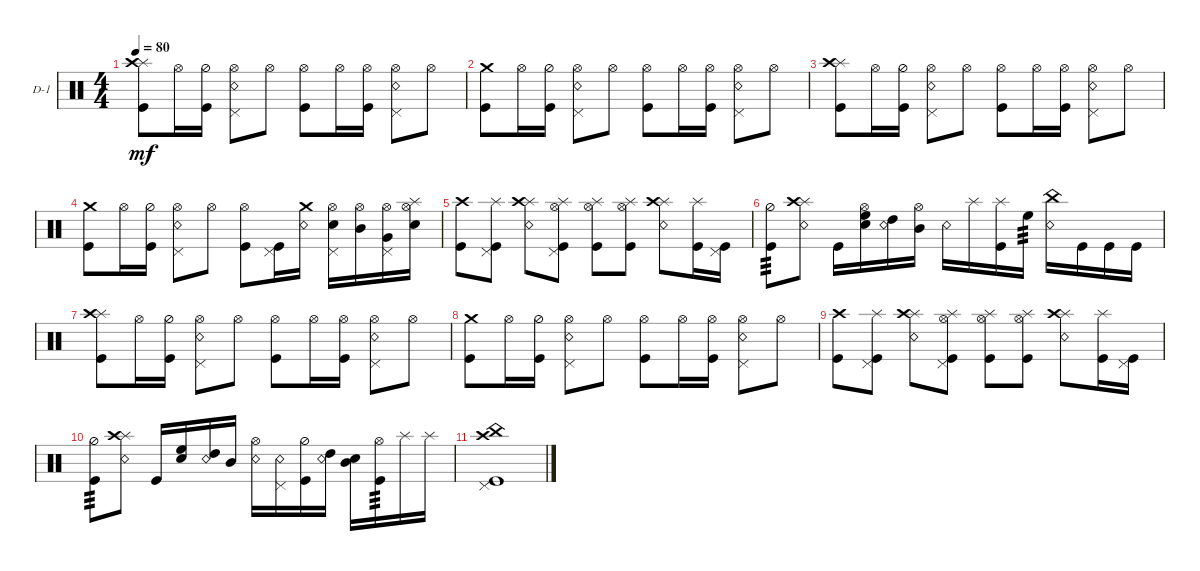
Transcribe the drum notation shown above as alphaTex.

\defaultSystemsLayout 4
\bracketExtendMode groupsimilarinstruments
\firstSystemTrackNameOrientation horizontal
\otherSystemsTrackNameOrientation horizontal
\track ("Drums" "D-1") {multiBarRest instrument percussion}
\staff {score}
\articulation defaults
\ts (4 4)
\tempo 80
\clef neutral
\ks aminor
("Kick (hit)" "Splash (hit)" "Crash high (hit)").8{dy mf} "Hi-Hat (open)".16 ("Hi-Hat (half)" "Kick (hit)").16 ("Hi-Hat (open)" "Pedal Hi-Hat (hit)" "Snare (rim shot)").8 "Hi-Hat (open)".8 ("Kick (hit)" "Hi-Hat (open)").8 "Hi-Hat (open)".16 ("Hi-Hat (open)" "Kick (hit)").16 ("Hi-Hat (open)" "Pedal Hi-Hat (hit)" "Snare (rim shot)").8 "Hi-Hat (open)".8 |
("Kick (hit)" "Crash medium (hit)").8 "Hi-Hat (open)".16 ("Hi-Hat (half)" "Kick (hit)").16 ("Hi-Hat (open)" "Pedal Hi-Hat (hit)" "Snare (rim shot)").8 "Hi-Hat (open)".8 ("Kick (hit)" "Hi-Hat (open)").8 "Hi-Hat (open)".16 ("Hi-Hat (open)" "Kick (hit)").16 ("Hi-Hat (open)" "Pedal Hi-Hat (hit)" "Snare (rim shot)").8 "Hi-Hat (open)".8 |
("Kick (hit)" "Splash (hit)" "Crash high (hit)").8 "Hi-Hat (open)".16 ("Hi-Hat (half)" "Kick (hit)").16 ("Hi-Hat (open)" "Pedal Hi-Hat (hit)" "Snare (rim shot)").8 "Hi-Hat (open)".8 ("Kick (hit)" "Hi-Hat (open)").8 "Hi-Hat (open)".16 ("Hi-Hat (open)" "Kick (hit)").16 ("Hi-Hat (open)" "Pedal Hi-Hat (hit)" "Snare (rim shot)").8 "Hi-Hat (open)".8 |
("Kick (hit)" "Crash medium (hit)").8 "Hi-Hat (open)".16 ("Hi-Hat (half)" "Kick (hit)").16 ("Hi-Hat (open)" "Pedal Hi-Hat (hit)" "Snare (rim shot)").8 "Hi-Hat (open)".8 ("Kick (hit)" "Hi-Hat (open)").8 ("Kick (hit)" "Pedal Hi-Hat (hit)").16 ("Snare (rim shot)" "Crash medium (hit)").16 ("Snare (hit) 2" "Pedal Hi-Hat (hit)" "Hi-Hat (open)").16 ("Mid Tom (hit)" "Hi-Hat (open)").16 ("Very Low Tom (hit)" "Pedal Hi-Hat (hit)" "Hi-Hat (open)").16 ("Snare (hit) 2" "Hi-Hat (open)" "Splash (hit)").16 |
("Crash high (hit)" "Kick (hit)").8 ("Kick (hit)" "Splash (hit)" "Pedal Hi-Hat (hit)").8 ("Splash (hit)" "Snare (rim shot)" "Crash high (hit)").8 ("Splash (hit)" "Pedal Hi-Hat (hit)" "Kick (hit)" "Hi-Hat (open)").8 ("Splash (hit)" "Kick (hit)" "Hi-Hat (open)").8 ("Splash (hit)" "Kick (hit)" "Hi-Hat (open)").8 ("Splash (hit)" "Snare (rim shot)" "Crash high (hit)").8 ("Splash (hit)" "Kick (hit)").16 ("Kick (hit)" "Pedal Hi-Hat (hit)").16 |
("Kick (hit)" "Hi-Hat (half)").8{tp 3} ("Snare (rim shot)" "Splash (hit)" "Crash high (hit)").8 "Kick (hit)".16 ("High Floor Tom (hit)" "Snare (hit) 2" "Hi-Hat (open)").16 ("High Tom (hit)" "Snare (rim shot)").16 ("Mid Tom (hit)" "Hi-Hat (open)").16 "Snare (rim shot)".16 "Splash (hit)".16 ("Splash (hit)" "Kick (hit)").16 "High Floor Tom (hit)".16{tp 3} ("Snare (rim shot)" "China (hit)").16 "Kick (hit)".16 "Kick (hit)".16 "Kick (hit)".16 |
("Kick (hit)" "Splash (hit)" "Crash high (hit)").8 "Hi-Hat (open)".16 ("Hi-Hat (half)" "Kick (hit)").16 ("Hi-Hat (open)" "Pedal Hi-Hat (hit)" "Snare (rim shot)").8 "Hi-Hat (open)".8 ("Kick (hit)" "Hi-Hat (open)").8 "Hi-Hat (open)".16 ("Hi-Hat (open)" "Kick (hit)").16 ("Hi-Hat (open)" "Pedal Hi-Hat (hit)" "Snare (rim shot)").8 "Hi-Hat (open)".8 |
("Kick (hit)" "Crash medium (hit)").8 "Hi-Hat (open)".16 ("Hi-Hat (half)" "Kick (hit)").16 ("Hi-Hat (open)" "Pedal Hi-Hat (hit)" "Snare (rim shot)").8 "Hi-Hat (open)".8 ("Kick (hit)" "Hi-Hat (open)").8 "Hi-Hat (open)".16 ("Hi-Hat (open)" "Kick (hit)").16 ("Hi-Hat (open)" "Pedal Hi-Hat (hit)" "Snare (rim shot)").8 "Hi-Hat (open)".8 |
("Crash high (hit)" "Kick (hit)").8 ("Kick (hit)" "Splash (hit)" "Pedal Hi-Hat (hit)").8 ("Splash (hit)" "Snare (rim shot)" "Crash high (hit)").8 ("Splash (hit)" "Pedal Hi-Hat (hit)" "Kick (hit)" "Hi-Hat (open)").8 ("Splash (hit)" "Kick (hit)" "Hi-Hat (open)").8 ("Splash (hit)" "Kick (hit)" "Hi-Hat (open)").8 ("Splash (hit)" "Snare (rim shot)" "Crash high (hit)").8 ("Splash (hit)" "Kick (hit)").16 ("Kick (hit)" "Pedal Hi-Hat (hit)").16 |
("Kick (hit)" "Hi-Hat (half)").8{tp 3} ("Snare (rim shot)" "Splash (hit)" "Crash high (hit)").8 "Kick (hit)".16 ("High Floor Tom (hit)" "Snare (hit) 2").16 ("High Tom (hit)" "Snare (rim shot)").16 "Mid Tom (hit)".16 ("Snare (rim shot)" "Hi-Hat (open)").16 ("Snare (rim shot)" "Pedal Hi-Hat (hit)").16 ("Kick (hit)" "Hi-Hat (half)").16 ("Snare (rim shot)" "High Tom (hit)").16 ("Snare (hit) 2" "Mid Tom (hit)").16 ("Kick (hit)" "Hi-Hat (open)").16{tp 3} "Splash (hit)".16 "Splash (hit)".16 |
("Crash high (hit)" "China (hit)" "Pedal Hi-Hat (hit)" "Kick (hit)").1
